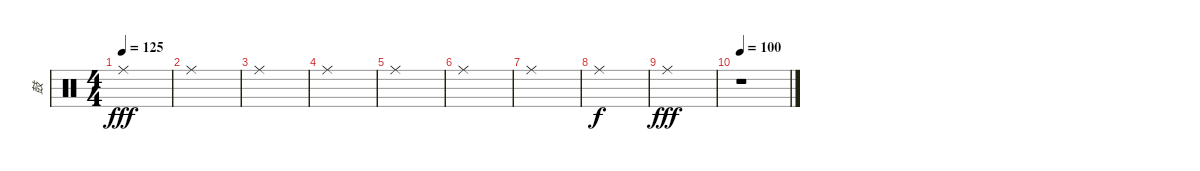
\track ("鼓" "鼓") {instrument percussion}
\staff {score}
\articulation defaults
\ts (4 4)
\tempo 125
\clef neutral
\ks c "Ride (middle)".1{dy fff}
|
"Ride (middle)".1 |
"Ride (middle)".1 |
"Ride (middle)".1 |
"Ride (middle)".1 |
"Ride (middle)".1 |
"Ride (middle)".1 |
"Ride (middle)".1{dy f} |
"Ride (middle)".1{dy fff} |
\tempo 100
r.1
